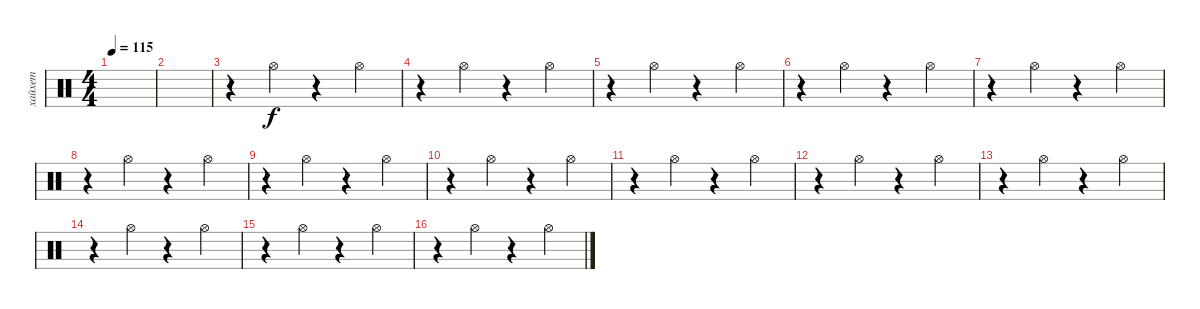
\track ("хайхет" "хайхет") {mute instrument percussion}
\staff {score}
\articulation defaults
\ts (4 4)
\tempo 115
\clef neutral
\ks c
|
|
r.4 "Hi-Hat (open)".4 r.4 "Hi-Hat (open)".4 |
r.4 "Hi-Hat (open)".4 r.4 "Hi-Hat (open)".4 |
r.4 "Hi-Hat (open)".4 r.4 "Hi-Hat (open)".4 |
r.4 "Hi-Hat (open)".4 r.4 "Hi-Hat (open)".4 |
r.4 "Hi-Hat (open)".4 r.4 "Hi-Hat (open)".4 |
r.4 "Hi-Hat (open)".4 r.4 "Hi-Hat (open)".4 |
r.4 "Hi-Hat (open)".4 r.4 "Hi-Hat (open)".4 |
r.4 "Hi-Hat (open)".4 r.4 "Hi-Hat (open)".4 |
r.4 "Hi-Hat (open)".4 r.4 "Hi-Hat (open)".4 |
r.4 "Hi-Hat (open)".4 r.4 "Hi-Hat (open)".4 |
r.4 "Hi-Hat (open)".4 r.4 "Hi-Hat (open)".4 |
r.4 "Hi-Hat (open)".4 r.4 "Hi-Hat (open)".4 |
r.4 "Hi-Hat (open)".4 r.4 "Hi-Hat (open)".4 |
r.4 "Hi-Hat (open)".4 r.4 "Hi-Hat (open)".4
